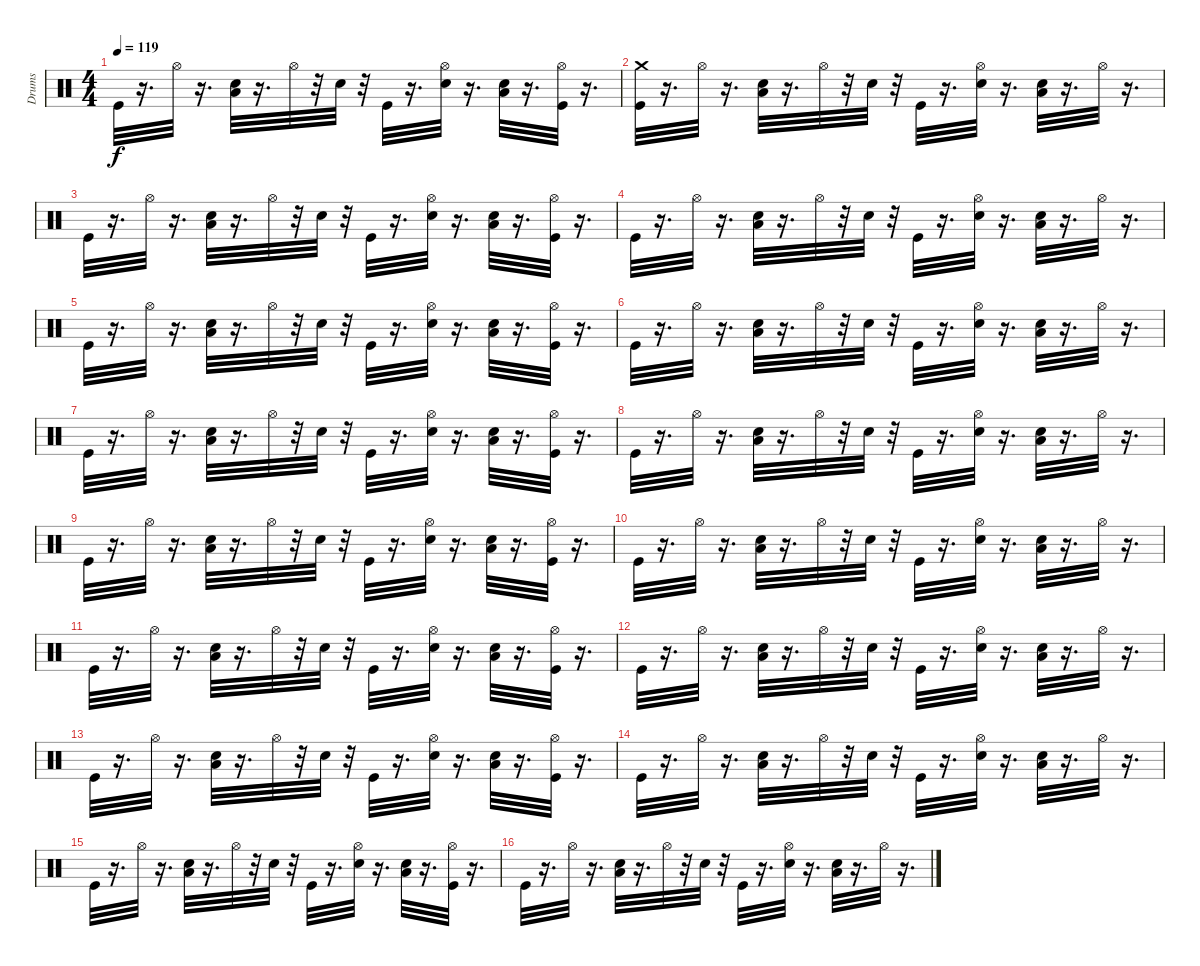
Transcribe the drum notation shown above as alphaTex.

\track ("Drums" "Drums") {instrument percussion}
\staff {score}
\articulation defaults
\ts (4 4)
\tempo 119
\clef neutral
\ks c "Kick (hit)".32{dy f}
r.16{d} "Hi-Hat (open)".32 r.16{d} ("Low Floor Tom (hit)" "Hand Clap (hit)").32 r.16{d} "Hi-Hat (open)".32 r.32 "Hand Clap (hit)".32 r.32 "Kick (hit)".32 r.16{d} ("Hi-Hat (open)" "Hand Clap (hit)").32 r.16{d} ("Low Floor Tom (hit)" "Hand Clap (hit)").32 r.16{d} ("Kick (hit)" "Hi-Hat (open)").32 r.16{d} |
("Crash medium (hit)" "Kick (hit)").32 r.16{d} "Hi-Hat (open)".32 r.16{d} ("Low Floor Tom (hit)" "Hand Clap (hit)").32 r.16{d} "Hi-Hat (open)".32 r.32 "Hand Clap (hit)".32 r.32 "Kick (hit)".32 r.16{d} ("Hi-Hat (open)" "Hand Clap (hit)").32 r.16{d} ("Low Floor Tom (hit)" "Hand Clap (hit)").32 r.16{d} "Hi-Hat (open)".32 r.16{d} |
"Kick (hit)".32 r.16{d} "Hi-Hat (open)".32 r.16{d} ("Low Floor Tom (hit)" "Hand Clap (hit)").32 r.16{d} "Hi-Hat (open)".32 r.32 "Hand Clap (hit)".32 r.32 "Kick (hit)".32 r.16{d} ("Hi-Hat (open)" "Hand Clap (hit)").32 r.16{d} ("Low Floor Tom (hit)" "Hand Clap (hit)").32 r.16{d} ("Kick (hit)" "Hi-Hat (open)").32 r.16{d} |
"Kick (hit)".32 r.16{d} "Hi-Hat (open)".32 r.16{d} ("Low Floor Tom (hit)" "Hand Clap (hit)").32 r.16{d} "Hi-Hat (open)".32 r.32 "Hand Clap (hit)".32 r.32 "Kick (hit)".32 r.16{d} ("Hi-Hat (open)" "Hand Clap (hit)").32 r.16{d} ("Low Floor Tom (hit)" "Hand Clap (hit)").32 r.16{d} "Hi-Hat (open)".32 r.16{d} |
"Kick (hit)".32 r.16{d} "Hi-Hat (open)".32 r.16{d} ("Low Floor Tom (hit)" "Hand Clap (hit)").32 r.16{d} "Hi-Hat (open)".32 r.32 "Hand Clap (hit)".32 r.32 "Kick (hit)".32 r.16{d} ("Hi-Hat (open)" "Hand Clap (hit)").32 r.16{d} ("Low Floor Tom (hit)" "Hand Clap (hit)").32 r.16{d} ("Kick (hit)" "Hi-Hat (open)").32 r.16{d} |
"Kick (hit)".32 r.16{d} "Hi-Hat (open)".32 r.16{d} ("Low Floor Tom (hit)" "Hand Clap (hit)").32 r.16{d} "Hi-Hat (open)".32 r.32 "Hand Clap (hit)".32 r.32 "Kick (hit)".32 r.16{d} ("Hi-Hat (open)" "Hand Clap (hit)").32 r.16{d} ("Low Floor Tom (hit)" "Hand Clap (hit)").32 r.16{d} "Hi-Hat (open)".32 r.16{d} |
"Kick (hit)".32 r.16{d} "Hi-Hat (open)".32 r.16{d} ("Low Floor Tom (hit)" "Hand Clap (hit)").32 r.16{d} "Hi-Hat (open)".32 r.32 "Hand Clap (hit)".32 r.32 "Kick (hit)".32 r.16{d} ("Hi-Hat (open)" "Hand Clap (hit)").32 r.16{d} ("Low Floor Tom (hit)" "Hand Clap (hit)").32 r.16{d} ("Kick (hit)" "Hi-Hat (open)").32 r.16{d} |
"Kick (hit)".32 r.16{d} "Hi-Hat (open)".32 r.16{d} ("Low Floor Tom (hit)" "Hand Clap (hit)").32 r.16{d} "Hi-Hat (open)".32 r.32 "Hand Clap (hit)".32 r.32 "Kick (hit)".32 r.16{d} ("Hi-Hat (open)" "Hand Clap (hit)").32 r.16{d} ("Low Floor Tom (hit)" "Hand Clap (hit)").32 r.16{d} "Hi-Hat (open)".32 r.16{d} |
"Kick (hit)".32 r.16{d} "Hi-Hat (open)".32 r.16{d} ("Low Floor Tom (hit)" "Hand Clap (hit)").32 r.16{d} "Hi-Hat (open)".32 r.32 "Hand Clap (hit)".32 r.32 "Kick (hit)".32 r.16{d} ("Hi-Hat (open)" "Hand Clap (hit)").32 r.16{d} ("Low Floor Tom (hit)" "Hand Clap (hit)").32 r.16{d} ("Kick (hit)" "Hi-Hat (open)").32 r.16{d} |
"Kick (hit)".32{volume 16} r.16{d} "Hi-Hat (open)".32{volume 16} r.16{d} ("Low Floor Tom (hit)" "Hand Clap (hit)").32{volume 15} r.16{d} "Hi-Hat (open)".32{volume 15} r.32 "Hand Clap (hit)".32{volume 15} r.32 "Kick (hit)".32{volume 15} r.16{d} ("Hi-Hat (open)" "Hand Clap (hit)").32{volume 14} r.16{d} ("Low Floor Tom (hit)" "Hand Clap (hit)").32{volume 14} r.16{d} "Hi-Hat (open)".32{volume 14} r.16{d} |
"Kick (hit)".32{volume 13} r.16{d} "Hi-Hat (open)".32{volume 13} r.16{d} ("Low Floor Tom (hit)" "Hand Clap (hit)").32{volume 13} r.16{d} "Hi-Hat (open)".32{volume 12} r.32 "Hand Clap (hit)".32{volume 12} r.32 "Kick (hit)".32{volume 12} r.16{d} ("Hi-Hat (open)" "Hand Clap (hit)").32{volume 12} r.16{d} ("Low Floor Tom (hit)" "Hand Clap (hit)").32{volume 11} r.16{d} ("Kick (hit)" "Hi-Hat (open)").32{volume 11} r.16{d} |
"Kick (hit)".32{volume 11} r.16{d} "Hi-Hat (open)".32{volume 10} r.16{d} ("Low Floor Tom (hit)" "Hand Clap (hit)").32{volume 10} r.16{d} "Hi-Hat (open)".32{volume 10} r.32 "Hand Clap (hit)".32{volume 10} r.32 "Kick (hit)".32{volume 9} r.16{d} ("Hi-Hat (open)" "Hand Clap (hit)").32{volume 9} r.16{d} ("Low Floor Tom (hit)" "Hand Clap (hit)").32{volume 9} r.16{d} "Hi-Hat (open)".32{volume 8} r.16{d} |
"Kick (hit)".32{volume 8} r.16{d} "Hi-Hat (open)".32{volume 8} r.16{d} ("Low Floor Tom (hit)" "Hand Clap (hit)").32{volume 7} r.16{d} "Hi-Hat (open)".32{volume 7} r.32 "Hand Clap (hit)".32{volume 7} r.32 "Kick (hit)".32{volume 7} r.16{d} ("Hi-Hat (open)" "Hand Clap (hit)").32{volume 6} r.16{d} ("Low Floor Tom (hit)" "Hand Clap (hit)").32{volume 6} r.16{d} ("Kick (hit)" "Hi-Hat (open)").32{volume 6} r.16{d} |
"Kick (hit)".32{volume 5} r.16{d} "Hi-Hat (open)".32{volume 5} r.16{d} ("Low Floor Tom (hit)" "Hand Clap (hit)").32{volume 5} r.16{d} "Hi-Hat (open)".32{volume 4} r.32 "Hand Clap (hit)".32{volume 4} r.32 "Kick (hit)".32{volume 4} r.16{d} ("Hi-Hat (open)" "Hand Clap (hit)").32{volume 4} r.16{d} ("Low Floor Tom (hit)" "Hand Clap (hit)").32{volume 3} r.16{d} "Hi-Hat (open)".32{volume 3} r.16{d} |
"Kick (hit)".32{volume 3} r.16{d} "Hi-Hat (open)".32{volume 2} r.16{d} ("Low Floor Tom (hit)" "Hand Clap (hit)").32{volume 2} r.16{d} "Hi-Hat (open)".32{volume 2} r.32 "Hand Clap (hit)".32{volume 2} r.32 "Kick (hit)".32{volume 1} r.16{d} ("Hi-Hat (open)" "Hand Clap (hit)").32{volume 1} r.16{d} ("Low Floor Tom (hit)" "Hand Clap (hit)").32{volume 1} r.16{d} ("Kick (hit)" "Hi-Hat (open)").32{volume 0} r.16{d} |
"Kick (hit)".32{volume 0} r.16{d} "Hi-Hat (open)".32 r.16{d} ("Low Floor Tom (hit)" "Hand Clap (hit)").32 r.16{d} "Hi-Hat (open)".32 r.32 "Hand Clap (hit)".32 r.32 "Kick (hit)".32 r.16{d} ("Hi-Hat (open)" "Hand Clap (hit)").32 r.16{d} ("Low Floor Tom (hit)" "Hand Clap (hit)").32 r.16{d} "Hi-Hat (open)".32 r.16{d}
